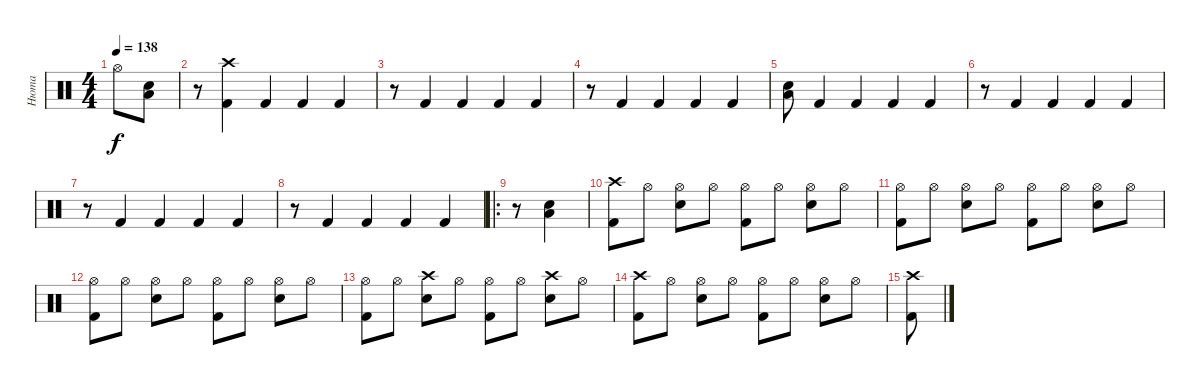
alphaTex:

\track ("Нюта" "Нюта") {instrument percussion}
\staff {score}
\articulation defaults
\ts (4 4)
\tempo 138
\clef neutral
\ks c "Hi-Hat (open)".8{dy f}
("Snare (hit) 2" "Low Tom (hit)").8 |
r.8 ("Crash high (hit)" "Kick (hit) 2").4 "Kick (hit) 2".4 "Kick (hit) 2".4 "Kick (hit) 2".4 |
r.8 "Kick (hit) 2".4 "Kick (hit) 2".4 "Kick (hit) 2".4 "Kick (hit) 2".4 |
r.8 "Kick (hit) 2".4 "Kick (hit) 2".4 "Kick (hit) 2".4 "Kick (hit) 2".4 |
("Snare (hit) 2" "Low Tom (hit)").8 "Kick (hit) 2".4 "Kick (hit) 2".4 "Kick (hit) 2".4 "Kick (hit) 2".4 |
r.8 "Kick (hit) 2".4 "Kick (hit) 2".4 "Kick (hit) 2".4 "Kick (hit) 2".4 |
r.8 "Kick (hit) 2".4 "Kick (hit) 2".4 "Kick (hit) 2".4 "Kick (hit) 2".4 |
r.8 "Kick (hit) 2".4 "Kick (hit) 2".4 "Kick (hit) 2".4 "Kick (hit) 2".4 |
\ro
r.8 ("Low Tom (hit)" "Snare (hit) 2").4 |
("Crash high (hit)" "Kick (hit) 2").8 "Hi-Hat (open)".8 ("Hi-Hat (open)" "Snare (hit) 2").8 "Hi-Hat (open)".8 ("Hi-Hat (open)" "Kick (hit) 2").8 "Hi-Hat (open)".8 ("Hi-Hat (open)" "Snare (hit) 2").8 "Hi-Hat (open)".8 |
("Hi-Hat (open)" "Kick (hit) 2").8 "Hi-Hat (open)".8 ("Hi-Hat (open)" "Snare (hit) 2").8 "Hi-Hat (open)".8 ("Hi-Hat (open)" "Kick (hit) 2").8 "Hi-Hat (open)".8 ("Hi-Hat (open)" "Snare (hit) 2").8 "Hi-Hat (open)".8 |
("Hi-Hat (open)" "Kick (hit) 2").8 "Hi-Hat (open)".8 ("Hi-Hat (open)" "Snare (hit) 2").8 "Hi-Hat (open)".8 ("Hi-Hat (open)" "Kick (hit) 2").8 "Hi-Hat (open)".8 ("Hi-Hat (open)" "Snare (hit) 2").8 "Hi-Hat (open)".8 |
("Hi-Hat (open)" "Kick (hit) 2").8 "Hi-Hat (open)".8 ("Crash high (hit)" "Snare (hit) 2").8 "Hi-Hat (open)".8 ("Hi-Hat (open)" "Kick (hit) 2").8 "Hi-Hat (open)".8 ("Crash high (hit)" "Snare (hit) 2").8 "Hi-Hat (open)".8 |
("Crash high (hit)" "Kick (hit) 2").8 "Hi-Hat (open)".8 ("Hi-Hat (open)" "Snare (hit) 2").8 "Hi-Hat (open)".8 ("Hi-Hat (open)" "Kick (hit) 2").8 "Hi-Hat (open)".8 ("Hi-Hat (open)" "Snare (hit) 2").8 "Hi-Hat (open)".8 |
("Crash high (hit)" "Kick (hit) 2").8
